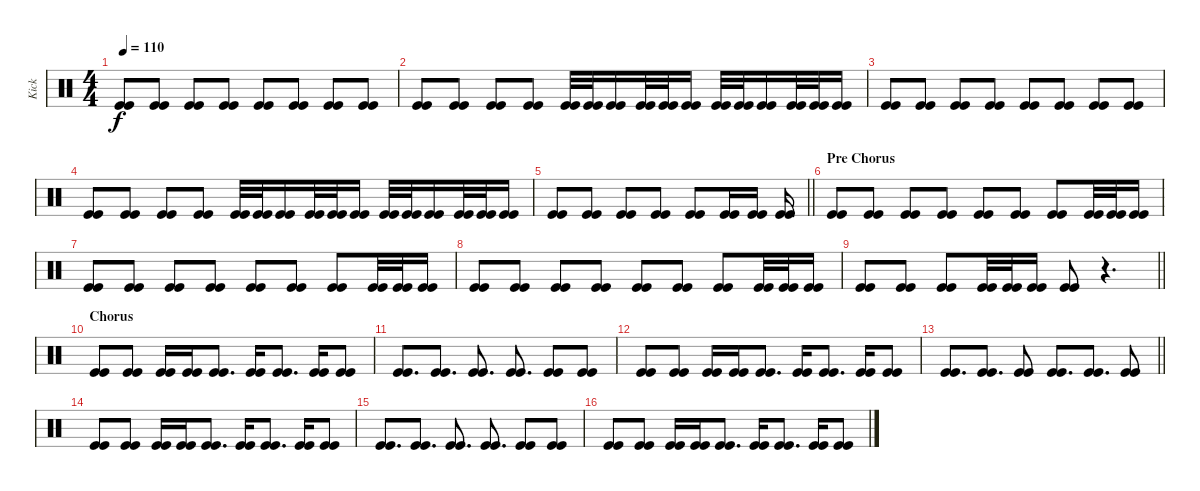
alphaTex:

\track ("Kick" "Kick") {instrument percussion}
\staff {score}
\articulation defaults
\ts (4 4)
\tempo 110
\clef neutral
\ks c
("Kick (hit)" "Kick (hit)").8{dy f} ("Kick (hit)" "Kick (hit)").8 ("Kick (hit)" "Kick (hit)").8 ("Kick (hit)" "Kick (hit)").8 ("Kick (hit)" "Kick (hit)").8 ("Kick (hit)" "Kick (hit)").8 ("Kick (hit)" "Kick (hit)").8 ("Kick (hit)" "Kick (hit)").8 |
("Kick (hit)" "Kick (hit)").8 ("Kick (hit)" "Kick (hit)").8 ("Kick (hit)" "Kick (hit)").8 ("Kick (hit)" "Kick (hit)").8 ("Kick (hit)" "Kick (hit)").32 ("Kick (hit)" "Kick (hit)").32 ("Kick (hit)" "Kick (hit)").16 ("Kick (hit)" "Kick (hit)").32 ("Kick (hit)" "Kick (hit)").32 ("Kick (hit)" "Kick (hit)").16 ("Kick (hit)" "Kick (hit)").32 ("Kick (hit)" "Kick (hit)").32 ("Kick (hit)" "Kick (hit)").16 ("Kick (hit)" "Kick (hit)").32 ("Kick (hit)" "Kick (hit)").32 ("Kick (hit)" "Kick (hit)").16 |
("Kick (hit)" "Kick (hit)").8 ("Kick (hit)" "Kick (hit)").8 ("Kick (hit)" "Kick (hit)").8 ("Kick (hit)" "Kick (hit)").8 ("Kick (hit)" "Kick (hit)").8 ("Kick (hit)" "Kick (hit)").8 ("Kick (hit)" "Kick (hit)").8 ("Kick (hit)" "Kick (hit)").8 |
("Kick (hit)" "Kick (hit)").8 ("Kick (hit)" "Kick (hit)").8 ("Kick (hit)" "Kick (hit)").8 ("Kick (hit)" "Kick (hit)").8 ("Kick (hit)" "Kick (hit)").32 ("Kick (hit)" "Kick (hit)").32 ("Kick (hit)" "Kick (hit)").16 ("Kick (hit)" "Kick (hit)").32 ("Kick (hit)" "Kick (hit)").32 ("Kick (hit)" "Kick (hit)").16 ("Kick (hit)" "Kick (hit)").32 ("Kick (hit)" "Kick (hit)").32 ("Kick (hit)" "Kick (hit)").16 ("Kick (hit)" "Kick (hit)").32 ("Kick (hit)" "Kick (hit)").32 ("Kick (hit)" "Kick (hit)").16 |
\barLineRight lightlight
("Kick (hit)" "Kick (hit)").8 ("Kick (hit)" "Kick (hit)").8 ("Kick (hit)" "Kick (hit)").8 ("Kick (hit)" "Kick (hit)").8 ("Kick (hit)" "Kick (hit)").8 ("Kick (hit)" "Kick (hit)").16 ("Kick (hit)" "Kick (hit)").16 ("Kick (hit)" "Kick (hit)").16 |
\section ("" "Pre Chorus")
("Kick (hit)" "Kick (hit)").8 ("Kick (hit)" "Kick (hit)").8 ("Kick (hit)" "Kick (hit)").8 ("Kick (hit)" "Kick (hit)").8 ("Kick (hit)" "Kick (hit)").8 ("Kick (hit)" "Kick (hit)").8 ("Kick (hit)" "Kick (hit)").8 ("Kick (hit)" "Kick (hit)").32 ("Kick (hit)" "Kick (hit)").32 ("Kick (hit)" "Kick (hit)").16 |
("Kick (hit)" "Kick (hit)").8 ("Kick (hit)" "Kick (hit)").8 ("Kick (hit)" "Kick (hit)").8 ("Kick (hit)" "Kick (hit)").8 ("Kick (hit)" "Kick (hit)").8 ("Kick (hit)" "Kick (hit)").8 ("Kick (hit)" "Kick (hit)").8 ("Kick (hit)" "Kick (hit)").32 ("Kick (hit)" "Kick (hit)").32 ("Kick (hit)" "Kick (hit)").16 |
("Kick (hit)" "Kick (hit)").8 ("Kick (hit)" "Kick (hit)").8 ("Kick (hit)" "Kick (hit)").8 ("Kick (hit)" "Kick (hit)").8 ("Kick (hit)" "Kick (hit)").8 ("Kick (hit)" "Kick (hit)").8 ("Kick (hit)" "Kick (hit)").8 ("Kick (hit)" "Kick (hit)").32 ("Kick (hit)" "Kick (hit)").32 ("Kick (hit)" "Kick (hit)").16 |
\barLineRight lightlight
("Kick (hit)" "Kick (hit)").8 ("Kick (hit)" "Kick (hit)").8 ("Kick (hit)" "Kick (hit)").8 ("Kick (hit)" "Kick (hit)").32 ("Kick (hit)" "Kick (hit)").32 ("Kick (hit)" "Kick (hit)").16 ("Kick (hit)" "Kick (hit)").8 r.4{d} |
\section ("" "Chorus")
("Kick (hit)" "Kick (hit)").8 ("Kick (hit)" "Kick (hit)").8 ("Kick (hit)" "Kick (hit)").16 ("Kick (hit)" "Kick (hit)").16 ("Kick (hit)" "Kick (hit)").8{d} ("Kick (hit)" "Kick (hit)").16 ("Kick (hit)" "Kick (hit)").8{d} ("Kick (hit)" "Kick (hit)").16 ("Kick (hit)" "Kick (hit)").8 |
("Kick (hit)" "Kick (hit)").8{d} ("Kick (hit)" "Kick (hit)").8{d} ("Kick (hit)" "Kick (hit)").8{d} ("Kick (hit)" "Kick (hit)").8{d} ("Kick (hit)" "Kick (hit)").8 ("Kick (hit)" "Kick (hit)").8 |
("Kick (hit)" "Kick (hit)").8 ("Kick (hit)" "Kick (hit)").8 ("Kick (hit)" "Kick (hit)").16 ("Kick (hit)" "Kick (hit)").16 ("Kick (hit)" "Kick (hit)").8{d} ("Kick (hit)" "Kick (hit)").16 ("Kick (hit)" "Kick (hit)").8{d} ("Kick (hit)" "Kick (hit)").16 ("Kick (hit)" "Kick (hit)").8 |
\barLineRight lightlight
("Kick (hit)" "Kick (hit)").8{d} ("Kick (hit)" "Kick (hit)").8{d} ("Kick (hit)" "Kick (hit)").8 ("Kick (hit)" "Kick (hit)").8{d} ("Kick (hit)" "Kick (hit)").8{d} ("Kick (hit)" "Kick (hit)").8 |
("Kick (hit)" "Kick (hit)").8 ("Kick (hit)" "Kick (hit)").8 ("Kick (hit)" "Kick (hit)").16 ("Kick (hit)" "Kick (hit)").16 ("Kick (hit)" "Kick (hit)").8{d} ("Kick (hit)" "Kick (hit)").16 ("Kick (hit)" "Kick (hit)").8{d} ("Kick (hit)" "Kick (hit)").16 ("Kick (hit)" "Kick (hit)").8 |
("Kick (hit)" "Kick (hit)").8{d} ("Kick (hit)" "Kick (hit)").8{d} ("Kick (hit)" "Kick (hit)").8{d} ("Kick (hit)" "Kick (hit)").8{d} ("Kick (hit)" "Kick (hit)").8 ("Kick (hit)" "Kick (hit)").8 |
("Kick (hit)" "Kick (hit)").8 ("Kick (hit)" "Kick (hit)").8 ("Kick (hit)" "Kick (hit)").16 ("Kick (hit)" "Kick (hit)").16 ("Kick (hit)" "Kick (hit)").8{d} ("Kick (hit)" "Kick (hit)").16 ("Kick (hit)" "Kick (hit)").8{d} ("Kick (hit)" "Kick (hit)").16 ("Kick (hit)" "Kick (hit)").8
